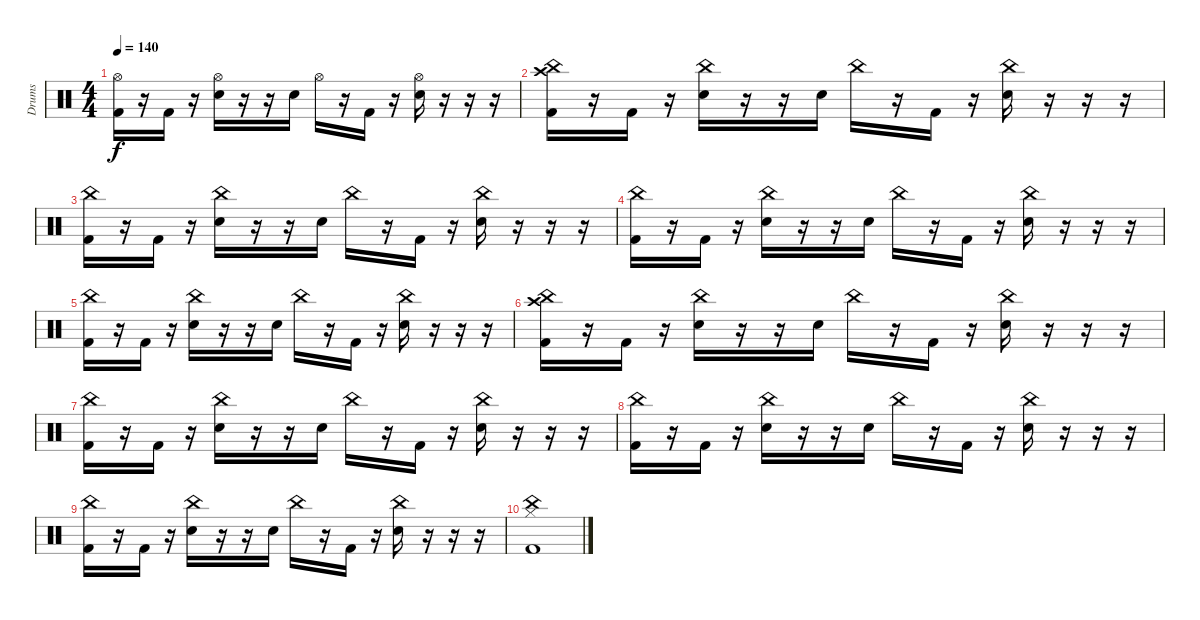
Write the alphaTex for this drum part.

\track ("Drums" "Drums") {instrument percussion}
\staff {score}
\articulation defaults
\ts (4 4)
\tempo 140
\clef neutral
\ks c
("Kick (hit) 2" "Hi-Hat (open)").16{dy f} r.16 "Kick (hit) 2".16 r.16 ("Electric Snare (hit)" "Hi-Hat (open)").16 r.16 r.16 "Electric Snare (hit)".16 "Hi-Hat (open)".16 r.16 "Kick (hit) 2".16 r.16 ("Electric Snare (hit)" "Hi-Hat (open)").16 r.16 r.16 r.16 |
("Kick (hit) 2" "Crash high (hit)" "China (hit)").16 r.16 "Kick (hit) 2".16 r.16 ("Electric Snare (hit)" "China (hit)").16 r.16 r.16 "Electric Snare (hit)".16 "China (hit)".16 r.16 "Kick (hit) 2".16 r.16 ("Electric Snare (hit)" "China (hit)").16 r.16 r.16 r.16 |
("Kick (hit) 2" "China (hit)").16 r.16 "Kick (hit) 2".16 r.16 ("Electric Snare (hit)" "China (hit)").16 r.16 r.16 "Electric Snare (hit)".16 "China (hit)".16 r.16 "Kick (hit) 2".16 r.16 ("Electric Snare (hit)" "China (hit)").16 r.16 r.16 r.16 |
("Kick (hit) 2" "China (hit)").16 r.16 "Kick (hit) 2".16 r.16 ("Electric Snare (hit)" "China (hit)").16 r.16 r.16 "Electric Snare (hit)".16 "China (hit)".16 r.16 "Kick (hit) 2".16 r.16 ("Electric Snare (hit)" "China (hit)").16 r.16 r.16 r.16 |
("Kick (hit) 2" "China (hit)").16 r.16 "Kick (hit) 2".16 r.16 ("Electric Snare (hit)" "China (hit)").16 r.16 r.16 "Electric Snare (hit)".16 "China (hit)".16 r.16 "Kick (hit) 2".16 r.16 ("Electric Snare (hit)" "China (hit)").16 r.16 r.16 r.16 |
("Kick (hit) 2" "Crash high (hit)" "China (hit)").16 r.16 "Kick (hit) 2".16 r.16 ("Electric Snare (hit)" "China (hit)").16 r.16 r.16 "Electric Snare (hit)".16 "China (hit)".16 r.16 "Kick (hit) 2".16 r.16 ("Electric Snare (hit)" "China (hit)").16 r.16 r.16 r.16 |
("Kick (hit) 2" "China (hit)").16 r.16 "Kick (hit) 2".16 r.16 ("Electric Snare (hit)" "China (hit)").16 r.16 r.16 "Electric Snare (hit)".16 "China (hit)".16 r.16 "Kick (hit) 2".16 r.16 ("Electric Snare (hit)" "China (hit)").16 r.16 r.16 r.16 |
("Kick (hit) 2" "China (hit)").16 r.16 "Kick (hit) 2".16 r.16 ("Electric Snare (hit)" "China (hit)").16 r.16 r.16 "Electric Snare (hit)".16 "China (hit)".16 r.16 "Kick (hit) 2".16 r.16 ("Electric Snare (hit)" "China (hit)").16 r.16 r.16 r.16 |
("Kick (hit) 2" "China (hit)").16 r.16 "Kick (hit) 2".16 r.16 ("Electric Snare (hit)" "China (hit)").16 r.16 r.16 "Electric Snare (hit)".16 "China (hit)".16 r.16 "Kick (hit) 2".16 r.16 ("Electric Snare (hit)" "China (hit)").16 r.16 r.16 r.16 |
("Kick (hit) 2" "China (hit)" "Hi-Hat (closed)").1
